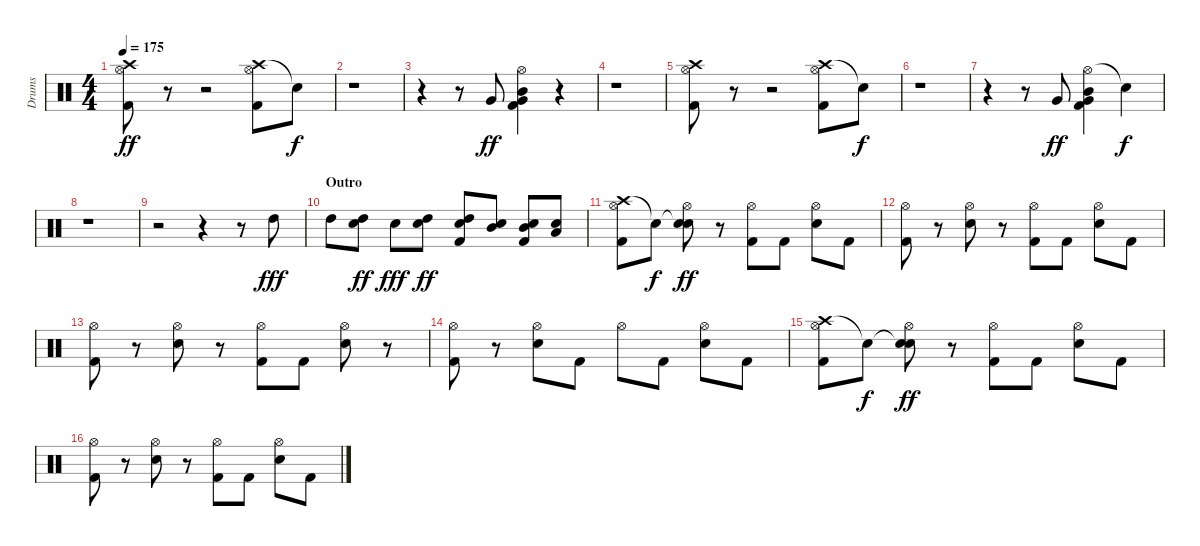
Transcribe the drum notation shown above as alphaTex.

\track ("Drums" "Drums") {instrument percussion}
\staff {score}
\articulation defaults
\ts (4 4)
\tempo 175
\clef neutral
\ks c
("Crash high (hit)" "Hi-Hat (open)" "Kick (hit) 2").8{dy ff} r.8 r.2 ("Crash high (hit)" "Hi-Hat (open)" "Kick (hit) 2").8 "Snare (hit)"{t}.8{dy f} |
r.1 |
r.4 r.8 "Very Low Tom (hit)".8{dy ff} ("Hi-Hat (open)" "Very Low Tom (hit)" "Mid Tom (hit)" "Kick (hit) 2").4 r.4 |
r.1 |
("Crash high (hit)" "Hi-Hat (open)" "Kick (hit) 2").8 r.8 r.2 ("Crash high (hit)" "Hi-Hat (open)" "Kick (hit) 2").8 "Snare (hit)"{t}.8{dy f} |
r.1 |
r.4 r.8 "Very Low Tom (hit)".8{dy ff} ("Hi-Hat (open)" "Very Low Tom (hit)" "Mid Tom (hit)" "Kick (hit) 2").4 "Snare (hit)"{t}.4{dy f} |
r.1 |
r.2 r.4 r.8 "High Tom (hit)".8{dy fff} |
\section ("" "Outro")
"High Tom (hit)".8 ("High Tom (hit)" "Electric Snare (hit)").8{dy ff} "Electric Snare (hit)".8{dy fff} ("High Tom (hit)" "Electric Snare (hit)").8{dy ff} ("High Tom (hit)" "Electric Snare (hit)" "Kick (hit) 2").8 ("Mid Tom (hit)" "Electric Snare (hit)").8 ("Mid Tom (hit)" "Electric Snare (hit)" "Kick (hit) 2").8 ("Low Floor Tom (hit)" "Electric Snare (hit)").8 |
("Crash high (hit)" "Hi-Hat (open)" "Kick (hit) 2").8 "Snare (hit)"{t}.8{dy f} ("Snare (hit)"{t} "Hi-Hat (open)" "Electric Snare (hit)").8{dy ff} r.8 ("Hi-Hat (open)" "Kick (hit) 2").8 "Kick (hit) 2".8 ("Hi-Hat (open)" "Electric Snare (hit)").8 "Kick (hit) 2".8 |
("Hi-Hat (open)" "Kick (hit) 2").8 r.8 ("Hi-Hat (open)" "Electric Snare (hit)").8 r.8 ("Hi-Hat (open)" "Kick (hit) 2").8 "Kick (hit) 2".8 ("Hi-Hat (open)" "Electric Snare (hit)").8 "Kick (hit) 2".8 |
("Hi-Hat (open)" "Kick (hit) 2").8 r.8 ("Hi-Hat (open)" "Electric Snare (hit)").8 r.8 ("Hi-Hat (open)" "Kick (hit) 2").8 "Kick (hit) 2".8 ("Hi-Hat (open)" "Electric Snare (hit)").8 r.8 |
("Hi-Hat (open)" "Kick (hit) 2").8 r.8 ("Hi-Hat (open)" "Electric Snare (hit)").8 "Kick (hit) 2".8 "Hi-Hat (open)".8 "Kick (hit) 2".8 ("Hi-Hat (open)" "Electric Snare (hit)").8 "Kick (hit) 2".8 |
("Crash high (hit)" "Hi-Hat (open)" "Kick (hit) 2").8 "Snare (hit)"{t}.8{dy f} ("Snare (hit)"{t} "Hi-Hat (open)" "Electric Snare (hit)").8{dy ff} r.8 ("Hi-Hat (open)" "Kick (hit) 2").8 "Kick (hit) 2".8 ("Hi-Hat (open)" "Electric Snare (hit)").8 "Kick (hit) 2".8 |
("Hi-Hat (open)" "Kick (hit) 2").8 r.8 ("Hi-Hat (open)" "Electric Snare (hit)").8 r.8 ("Hi-Hat (open)" "Kick (hit) 2").8 "Kick (hit) 2".8 ("Hi-Hat (open)" "Electric Snare (hit)").8 "Kick (hit) 2".8
